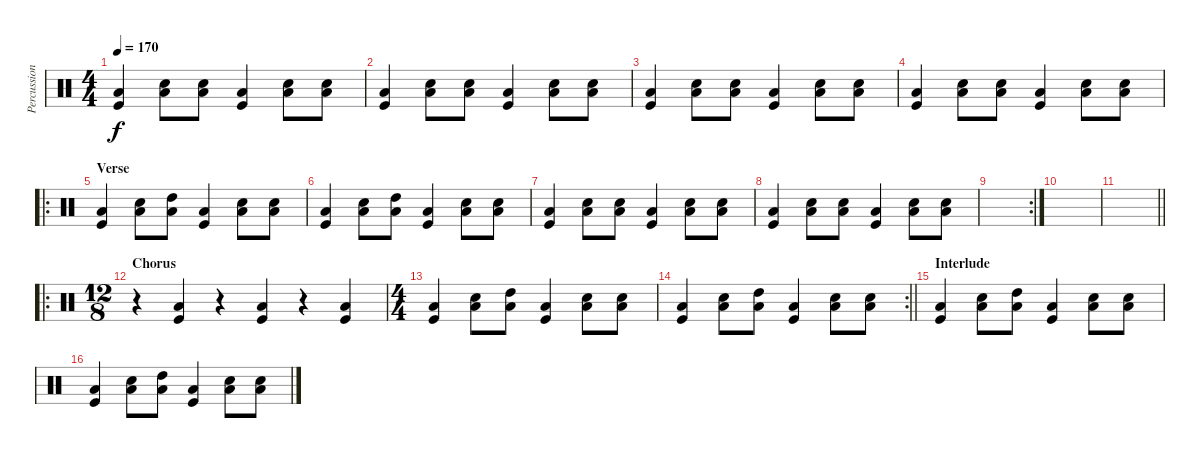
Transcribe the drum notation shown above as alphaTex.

\track ("Percussion" "Percussion") {instrument percussion}
\staff {score}
\articulation defaults
\ts (4 4)
\tempo 170
\clef neutral
\ks c
("Kick (hit)" "Low Tom (hit)").4{dy f} ("Low Tom (hit)" "Snare (hit) 2").8 ("Low Tom (hit)" "Snare (hit) 2").8 ("Kick (hit)" "Low Tom (hit)").4 ("Low Tom (hit)" "Snare (hit) 2").8 ("Low Tom (hit)" "Snare (hit) 2").8 |
("Kick (hit)" "Low Tom (hit)").4 ("Low Tom (hit)" "Snare (hit) 2").8 ("Low Tom (hit)" "Snare (hit) 2").8 ("Kick (hit)" "Low Tom (hit)").4 ("Low Tom (hit)" "Snare (hit) 2").8 ("Low Tom (hit)" "Snare (hit) 2").8 |
("Kick (hit)" "Low Tom (hit)").4 ("Low Tom (hit)" "Snare (hit) 2").8 ("Low Tom (hit)" "Snare (hit) 2").8 ("Kick (hit)" "Low Tom (hit)").4 ("Low Tom (hit)" "Snare (hit) 2").8 ("Low Tom (hit)" "Snare (hit) 2").8 |
("Kick (hit)" "Low Tom (hit)").4 ("Low Tom (hit)" "Snare (hit) 2").8 ("Low Tom (hit)" "Snare (hit) 2").8 ("Kick (hit)" "Low Tom (hit)").4 ("Low Tom (hit)" "Snare (hit) 2").8 ("Low Tom (hit)" "Snare (hit) 2").8 |
\ro
\section ("" "Verse")
("Kick (hit)" "Low Tom (hit)").4 ("Low Tom (hit)" "Snare (hit) 2").8 ("Low Tom (hit)" "High Tom (hit)").8 ("Kick (hit)" "Low Tom (hit)").4 ("Low Tom (hit)" "Snare (hit) 2").8 ("Low Tom (hit)" "Snare (hit) 2").8 |
("Kick (hit)" "Low Tom (hit)").4 ("Low Tom (hit)" "Snare (hit) 2").8 ("Low Tom (hit)" "High Tom (hit)").8 ("Kick (hit)" "Low Tom (hit)").4 ("Low Tom (hit)" "Snare (hit) 2").8 ("Low Tom (hit)" "Snare (hit) 2").8 |
("Kick (hit)" "Low Tom (hit)").4 ("Low Tom (hit)" "Snare (hit) 2").8 ("Low Tom (hit)" "Snare (hit) 2").8 ("Kick (hit)" "Low Tom (hit)").4 ("Low Tom (hit)" "Snare (hit) 2").8 ("Low Tom (hit)" "Snare (hit) 2").8 |
("Kick (hit)" "Low Tom (hit)").4 ("Low Tom (hit)" "Snare (hit) 2").8 ("Low Tom (hit)" "Snare (hit) 2").8 ("Kick (hit)" "Low Tom (hit)").4 ("Low Tom (hit)" "Snare (hit) 2").8 ("Low Tom (hit)" "Snare (hit) 2").8 |
\rc 2
|
|
\barLineRight lightlight
|
\ro
\ts (12 8)
\section ("" "Chorus")
r.4 ("Kick (hit)" "Low Tom (hit)").4 r.4 ("Kick (hit)" "Low Tom (hit)").4 r.4 ("Kick (hit)" "Low Tom (hit)").4 |
\ts (4 4)
("Kick (hit)" "Low Tom (hit)").4 ("Low Tom (hit)" "Snare (hit) 2").8 ("Low Tom (hit)" "High Tom (hit)").8 ("Kick (hit)" "Low Tom (hit)").4 ("Low Tom (hit)" "Snare (hit) 2").8 ("Low Tom (hit)" "Snare (hit) 2").8 |
\rc 2
\barLineRight lightlight
("Kick (hit)" "Low Tom (hit)").4 ("Low Tom (hit)" "Snare (hit) 2").8 ("Low Tom (hit)" "High Tom (hit)").8 ("Kick (hit)" "Low Tom (hit)").4 ("Low Tom (hit)" "Snare (hit) 2").8 ("Low Tom (hit)" "Snare (hit) 2").8 |
\section ("" "Interlude")
("Kick (hit)" "Low Tom (hit)").4 ("Low Tom (hit)" "Snare (hit) 2").8 ("Low Tom (hit)" "High Tom (hit)").8 ("Kick (hit)" "Low Tom (hit)").4 ("Low Tom (hit)" "Snare (hit) 2").8 ("Low Tom (hit)" "Snare (hit) 2").8 |
("Kick (hit)" "Low Tom (hit)").4 ("Low Tom (hit)" "Snare (hit) 2").8 ("Low Tom (hit)" "High Tom (hit)").8 ("Kick (hit)" "Low Tom (hit)").4 ("Low Tom (hit)" "Snare (hit) 2").8 ("Low Tom (hit)" "Snare (hit) 2").8
